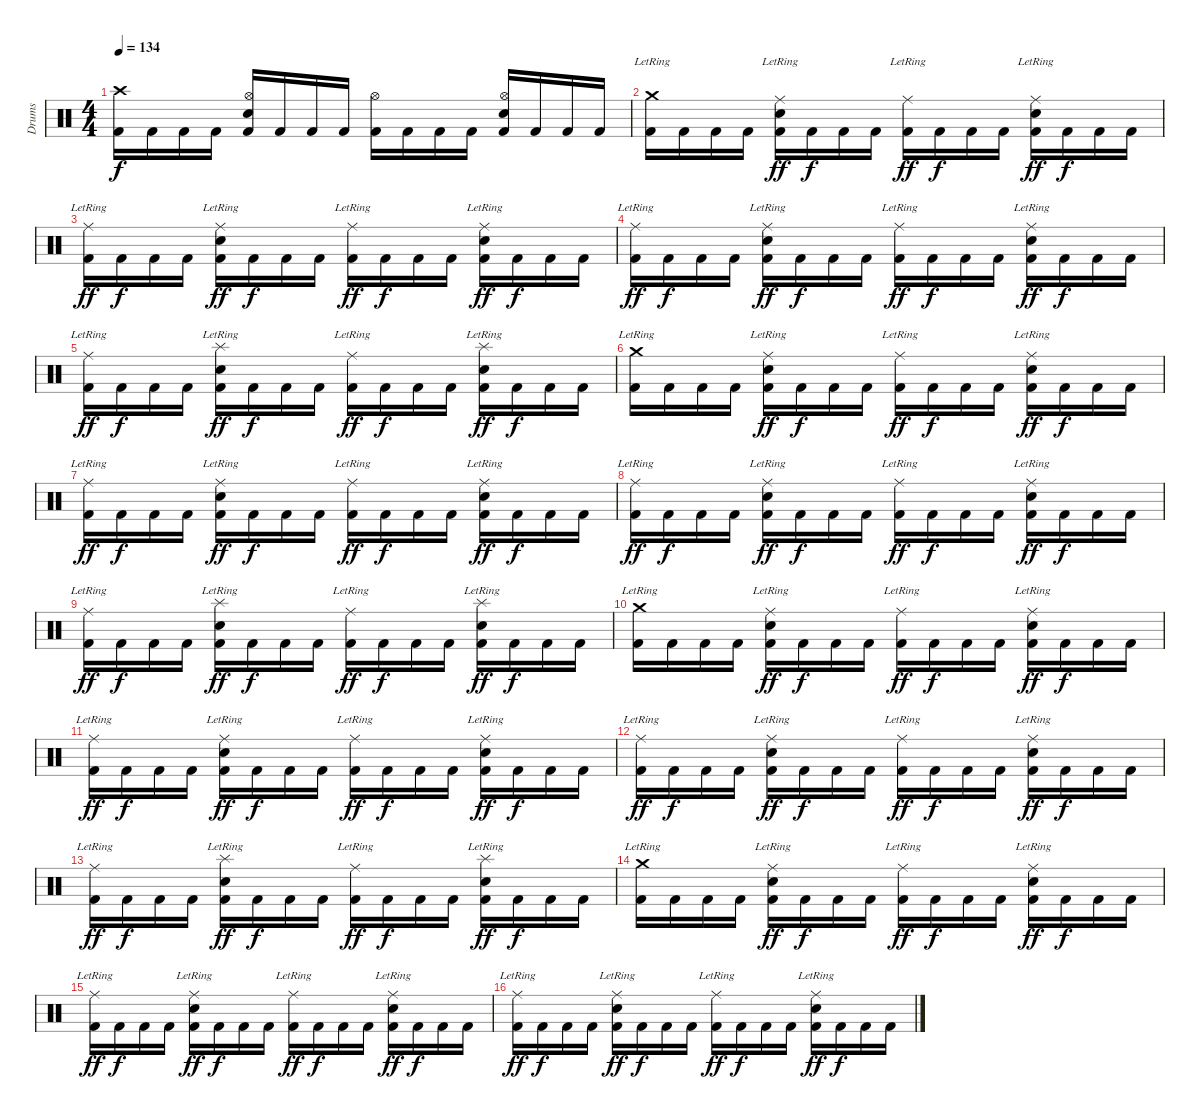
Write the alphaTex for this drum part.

\track ("Drums" "Drums") {instrument percussion}
\staff {score}
\articulation defaults
\ts (4 4)
\tempo 134
\clef neutral
\ks c
("Crash high (hit)" "Kick (hit) 2").16{dy f} "Kick (hit) 2".16 "Kick (hit) 2".16 "Kick (hit) 2".16 ("Hi-Hat (open)" "Snare (hit) 2" "Kick (hit) 2").16 "Kick (hit) 2".16 "Kick (hit) 2".16 "Kick (hit) 2".16 ("Hi-Hat (open)" "Kick (hit) 2").16 "Kick (hit) 2".16 "Kick (hit) 2".16 "Kick (hit) 2".16 ("Hi-Hat (open)" "Snare (hit) 2" "Kick (hit) 2").16 "Kick (hit) 2".16 "Kick (hit) 2".16 "Kick (hit) 2".16 |
("Crash medium (hit)"{lr} "Kick (hit) 2").16 "Kick (hit) 2".16 "Kick (hit) 2".16 "Kick (hit) 2".16 ("Ride (middle)"{lr} "Snare (hit) 2" "Kick (hit) 2").16{dy ff} "Kick (hit) 2".16{dy f} "Kick (hit) 2".16 "Kick (hit) 2".16 ("Ride (middle)"{lr} "Kick (hit) 2").16{dy ff} "Kick (hit) 2".16{dy f} "Kick (hit) 2".16 "Kick (hit) 2".16 ("Ride (middle)"{lr} "Snare (hit) 2" "Kick (hit) 2").16{dy ff} "Kick (hit) 2".16{dy f} "Kick (hit) 2".16 "Kick (hit) 2".16 |
("Ride (middle)"{lr} "Kick (hit) 2").16{dy ff} "Kick (hit) 2".16{dy f} "Kick (hit) 2".16 "Kick (hit) 2".16 ("Ride (middle)"{lr} "Snare (hit) 2" "Kick (hit) 2").16{dy ff} "Kick (hit) 2".16{dy f} "Kick (hit) 2".16 "Kick (hit) 2".16 ("Ride (middle)"{lr} "Kick (hit) 2").16{dy ff} "Kick (hit) 2".16{dy f} "Kick (hit) 2".16 "Kick (hit) 2".16 ("Ride (middle)"{lr} "Snare (hit) 2" "Kick (hit) 2").16{dy ff} "Kick (hit) 2".16{dy f} "Kick (hit) 2".16 "Kick (hit) 2".16 |
("Ride (middle)"{lr} "Kick (hit) 2").16{dy ff} "Kick (hit) 2".16{dy f} "Kick (hit) 2".16 "Kick (hit) 2".16 ("Ride (middle)"{lr} "Snare (hit) 2" "Kick (hit) 2").16{dy ff} "Kick (hit) 2".16{dy f} "Kick (hit) 2".16 "Kick (hit) 2".16 ("Ride (middle)"{lr} "Kick (hit) 2").16{dy ff} "Kick (hit) 2".16{dy f} "Kick (hit) 2".16 "Kick (hit) 2".16 ("Ride (middle)"{lr} "Snare (hit) 2" "Kick (hit) 2").16{dy ff} "Kick (hit) 2".16{dy f} "Kick (hit) 2".16 "Kick (hit) 2".16 |
("Ride (middle)"{lr} "Kick (hit) 2").16{dy ff} "Kick (hit) 2".16{dy f} "Kick (hit) 2".16 "Kick (hit) 2".16 ("Snare (hit) 2" "Splash (hit)"{lr} "Kick (hit) 2").16{dy ff} "Kick (hit) 2".16{dy f} "Kick (hit) 2".16 "Kick (hit) 2".16 ("Ride (middle)"{lr} "Kick (hit) 2").16{dy ff} "Kick (hit) 2".16{dy f} "Kick (hit) 2".16 "Kick (hit) 2".16 ("Snare (hit) 2" "Splash (hit)"{lr} "Kick (hit) 2").16{dy ff} "Kick (hit) 2".16{dy f} "Kick (hit) 2".16 "Kick (hit) 2".16 |
("Crash medium (hit)"{lr} "Kick (hit) 2").16 "Kick (hit) 2".16 "Kick (hit) 2".16 "Kick (hit) 2".16 ("Ride (middle)"{lr} "Snare (hit) 2" "Kick (hit) 2").16{dy ff} "Kick (hit) 2".16{dy f} "Kick (hit) 2".16 "Kick (hit) 2".16 ("Ride (middle)"{lr} "Kick (hit) 2").16{dy ff} "Kick (hit) 2".16{dy f} "Kick (hit) 2".16 "Kick (hit) 2".16 ("Ride (middle)"{lr} "Snare (hit) 2" "Kick (hit) 2").16{dy ff} "Kick (hit) 2".16{dy f} "Kick (hit) 2".16 "Kick (hit) 2".16 |
("Ride (middle)"{lr} "Kick (hit) 2").16{dy ff} "Kick (hit) 2".16{dy f} "Kick (hit) 2".16 "Kick (hit) 2".16 ("Ride (middle)"{lr} "Snare (hit) 2" "Kick (hit) 2").16{dy ff} "Kick (hit) 2".16{dy f} "Kick (hit) 2".16 "Kick (hit) 2".16 ("Ride (middle)"{lr} "Kick (hit) 2").16{dy ff} "Kick (hit) 2".16{dy f} "Kick (hit) 2".16 "Kick (hit) 2".16 ("Ride (middle)"{lr} "Snare (hit) 2" "Kick (hit) 2").16{dy ff} "Kick (hit) 2".16{dy f} "Kick (hit) 2".16 "Kick (hit) 2".16 |
("Ride (middle)"{lr} "Kick (hit) 2").16{dy ff} "Kick (hit) 2".16{dy f} "Kick (hit) 2".16 "Kick (hit) 2".16 ("Ride (middle)"{lr} "Snare (hit) 2" "Kick (hit) 2").16{dy ff} "Kick (hit) 2".16{dy f} "Kick (hit) 2".16 "Kick (hit) 2".16 ("Ride (middle)"{lr} "Kick (hit) 2").16{dy ff} "Kick (hit) 2".16{dy f} "Kick (hit) 2".16 "Kick (hit) 2".16 ("Ride (middle)"{lr} "Snare (hit) 2" "Kick (hit) 2").16{dy ff} "Kick (hit) 2".16{dy f} "Kick (hit) 2".16 "Kick (hit) 2".16 |
("Ride (middle)"{lr} "Kick (hit) 2").16{dy ff} "Kick (hit) 2".16{dy f} "Kick (hit) 2".16 "Kick (hit) 2".16 ("Snare (hit) 2" "Splash (hit)"{lr} "Kick (hit) 2").16{dy ff} "Kick (hit) 2".16{dy f} "Kick (hit) 2".16 "Kick (hit) 2".16 ("Ride (middle)"{lr} "Kick (hit) 2").16{dy ff} "Kick (hit) 2".16{dy f} "Kick (hit) 2".16 "Kick (hit) 2".16 ("Snare (hit) 2" "Splash (hit)"{lr} "Kick (hit) 2").16{dy ff} "Kick (hit) 2".16{dy f} "Kick (hit) 2".16 "Kick (hit) 2".16 |
("Crash medium (hit)"{lr} "Kick (hit) 2").16 "Kick (hit) 2".16 "Kick (hit) 2".16 "Kick (hit) 2".16 ("Ride (middle)"{lr} "Snare (hit) 2" "Kick (hit) 2").16{dy ff} "Kick (hit) 2".16{dy f} "Kick (hit) 2".16 "Kick (hit) 2".16 ("Ride (middle)"{lr} "Kick (hit) 2").16{dy ff} "Kick (hit) 2".16{dy f} "Kick (hit) 2".16 "Kick (hit) 2".16 ("Ride (middle)"{lr} "Snare (hit) 2" "Kick (hit) 2").16{dy ff} "Kick (hit) 2".16{dy f} "Kick (hit) 2".16 "Kick (hit) 2".16 |
("Ride (middle)"{lr} "Kick (hit) 2").16{dy ff} "Kick (hit) 2".16{dy f} "Kick (hit) 2".16 "Kick (hit) 2".16 ("Ride (middle)"{lr} "Snare (hit) 2" "Kick (hit) 2").16{dy ff} "Kick (hit) 2".16{dy f} "Kick (hit) 2".16 "Kick (hit) 2".16 ("Ride (middle)"{lr} "Kick (hit) 2").16{dy ff} "Kick (hit) 2".16{dy f} "Kick (hit) 2".16 "Kick (hit) 2".16 ("Ride (middle)"{lr} "Snare (hit) 2" "Kick (hit) 2").16{dy ff} "Kick (hit) 2".16{dy f} "Kick (hit) 2".16 "Kick (hit) 2".16 |
("Ride (middle)"{lr} "Kick (hit) 2").16{dy ff} "Kick (hit) 2".16{dy f} "Kick (hit) 2".16 "Kick (hit) 2".16 ("Ride (middle)"{lr} "Snare (hit) 2" "Kick (hit) 2").16{dy ff} "Kick (hit) 2".16{dy f} "Kick (hit) 2".16 "Kick (hit) 2".16 ("Ride (middle)"{lr} "Kick (hit) 2").16{dy ff} "Kick (hit) 2".16{dy f} "Kick (hit) 2".16 "Kick (hit) 2".16 ("Ride (middle)"{lr} "Snare (hit) 2" "Kick (hit) 2").16{dy ff} "Kick (hit) 2".16{dy f} "Kick (hit) 2".16 "Kick (hit) 2".16 |
("Ride (middle)"{lr} "Kick (hit) 2").16{dy ff} "Kick (hit) 2".16{dy f} "Kick (hit) 2".16 "Kick (hit) 2".16 ("Snare (hit) 2" "Splash (hit)"{lr} "Kick (hit) 2").16{dy ff} "Kick (hit) 2".16{dy f} "Kick (hit) 2".16 "Kick (hit) 2".16 ("Ride (middle)"{lr} "Kick (hit) 2").16{dy ff} "Kick (hit) 2".16{dy f} "Kick (hit) 2".16 "Kick (hit) 2".16 ("Snare (hit) 2" "Splash (hit)"{lr} "Kick (hit) 2").16{dy ff} "Kick (hit) 2".16{dy f} "Kick (hit) 2".16 "Kick (hit) 2".16 |
("Crash medium (hit)"{lr} "Kick (hit) 2").16 "Kick (hit) 2".16 "Kick (hit) 2".16 "Kick (hit) 2".16 ("Ride (middle)"{lr} "Snare (hit) 2" "Kick (hit) 2").16{dy ff} "Kick (hit) 2".16{dy f} "Kick (hit) 2".16 "Kick (hit) 2".16 ("Ride (middle)"{lr} "Kick (hit) 2").16{dy ff} "Kick (hit) 2".16{dy f} "Kick (hit) 2".16 "Kick (hit) 2".16 ("Ride (middle)"{lr} "Snare (hit) 2" "Kick (hit) 2").16{dy ff} "Kick (hit) 2".16{dy f} "Kick (hit) 2".16 "Kick (hit) 2".16 |
("Ride (middle)"{lr} "Kick (hit) 2").16{dy ff} "Kick (hit) 2".16{dy f} "Kick (hit) 2".16 "Kick (hit) 2".16 ("Ride (middle)"{lr} "Snare (hit) 2" "Kick (hit) 2").16{dy ff} "Kick (hit) 2".16{dy f} "Kick (hit) 2".16 "Kick (hit) 2".16 ("Ride (middle)"{lr} "Kick (hit) 2").16{dy ff} "Kick (hit) 2".16{dy f} "Kick (hit) 2".16 "Kick (hit) 2".16 ("Ride (middle)"{lr} "Snare (hit) 2" "Kick (hit) 2").16{dy ff} "Kick (hit) 2".16{dy f} "Kick (hit) 2".16 "Kick (hit) 2".16 |
("Ride (middle)"{lr} "Kick (hit) 2").16{dy ff} "Kick (hit) 2".16{dy f} "Kick (hit) 2".16 "Kick (hit) 2".16 ("Ride (middle)"{lr} "Snare (hit) 2" "Kick (hit) 2").16{dy ff} "Kick (hit) 2".16{dy f} "Kick (hit) 2".16 "Kick (hit) 2".16 ("Ride (middle)"{lr} "Kick (hit) 2").16{dy ff} "Kick (hit) 2".16{dy f} "Kick (hit) 2".16 "Kick (hit) 2".16 ("Ride (middle)"{lr} "Snare (hit) 2" "Kick (hit) 2").16{dy ff} "Kick (hit) 2".16{dy f} "Kick (hit) 2".16 "Kick (hit) 2".16
